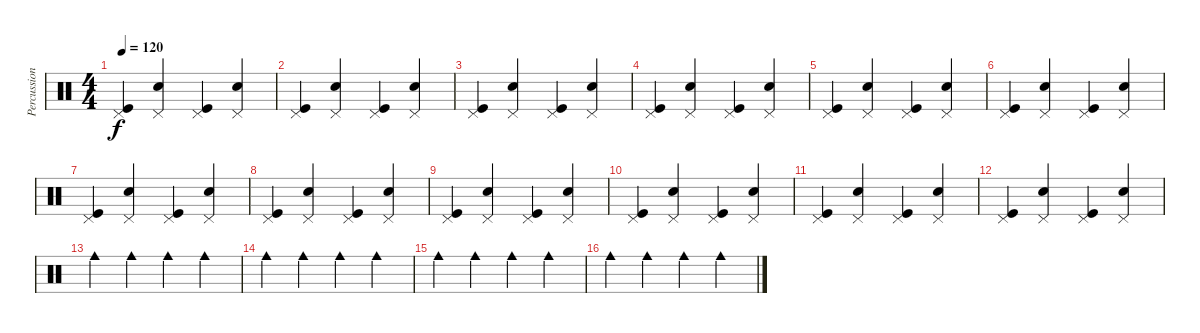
\track ("Percussion" "Percussion") {instrument percussion}
\staff {score}
\articulation defaults
\ts (4 4)
\tempo 120
\clef neutral
\ks c
("Kick (hit)" "Pedal Hi-Hat (hit)").4{dy f} ("Snare (hit) 2" "Pedal Hi-Hat (hit)").4 ("Kick (hit)" "Pedal Hi-Hat (hit)").4 ("Snare (hit) 2" "Pedal Hi-Hat (hit)").4 |
("Kick (hit)" "Pedal Hi-Hat (hit)").4 ("Snare (hit) 2" "Pedal Hi-Hat (hit)").4 ("Kick (hit)" "Pedal Hi-Hat (hit)").4 ("Snare (hit) 2" "Pedal Hi-Hat (hit)").4 |
("Kick (hit)" "Pedal Hi-Hat (hit)").4 ("Snare (hit) 2" "Pedal Hi-Hat (hit)").4 ("Kick (hit)" "Pedal Hi-Hat (hit)").4 ("Snare (hit) 2" "Pedal Hi-Hat (hit)").4 |
("Kick (hit)" "Pedal Hi-Hat (hit)").4 ("Snare (hit) 2" "Pedal Hi-Hat (hit)").4 ("Kick (hit)" "Pedal Hi-Hat (hit)").4 ("Snare (hit) 2" "Pedal Hi-Hat (hit)").4 |
("Kick (hit)" "Pedal Hi-Hat (hit)").4 ("Snare (hit) 2" "Pedal Hi-Hat (hit)").4 ("Kick (hit)" "Pedal Hi-Hat (hit)").4 ("Snare (hit) 2" "Pedal Hi-Hat (hit)").4 |
("Kick (hit)" "Pedal Hi-Hat (hit)").4 ("Snare (hit) 2" "Pedal Hi-Hat (hit)").4 ("Kick (hit)" "Pedal Hi-Hat (hit)").4 ("Snare (hit) 2" "Pedal Hi-Hat (hit)").4 |
("Kick (hit)" "Pedal Hi-Hat (hit)").4 ("Snare (hit) 2" "Pedal Hi-Hat (hit)").4 ("Kick (hit)" "Pedal Hi-Hat (hit)").4 ("Snare (hit) 2" "Pedal Hi-Hat (hit)").4 |
("Kick (hit)" "Pedal Hi-Hat (hit)").4 ("Snare (hit) 2" "Pedal Hi-Hat (hit)").4 ("Kick (hit)" "Pedal Hi-Hat (hit)").4 ("Snare (hit) 2" "Pedal Hi-Hat (hit)").4 |
("Kick (hit)" "Pedal Hi-Hat (hit)").4 ("Snare (hit) 2" "Pedal Hi-Hat (hit)").4 ("Kick (hit)" "Pedal Hi-Hat (hit)").4 ("Snare (hit) 2" "Pedal Hi-Hat (hit)").4 |
("Kick (hit)" "Pedal Hi-Hat (hit)").4 ("Snare (hit) 2" "Pedal Hi-Hat (hit)").4 ("Kick (hit)" "Pedal Hi-Hat (hit)").4 ("Snare (hit) 2" "Pedal Hi-Hat (hit)").4 |
("Kick (hit)" "Pedal Hi-Hat (hit)").4 ("Snare (hit) 2" "Pedal Hi-Hat (hit)").4 ("Kick (hit)" "Pedal Hi-Hat (hit)").4 ("Snare (hit) 2" "Pedal Hi-Hat (hit)").4 |
("Kick (hit)" "Pedal Hi-Hat (hit)").4 ("Snare (hit) 2" "Pedal Hi-Hat (hit)").4 ("Kick (hit)" "Pedal Hi-Hat (hit)").4 ("Snare (hit) 2" "Pedal Hi-Hat (hit)").4 |
"Cowbell medium (hit)".4 "Cowbell medium (hit)".4 "Cowbell medium (hit)".4 "Cowbell medium (hit)".4 |
"Cowbell medium (hit)".4 "Cowbell medium (hit)".4 "Cowbell medium (hit)".4 "Cowbell medium (hit)".4 |
"Cowbell medium (hit)".4 "Cowbell medium (hit)".4 "Cowbell medium (hit)".4 "Cowbell medium (hit)".4 |
"Cowbell medium (hit)".4 "Cowbell medium (hit)".4 "Cowbell medium (hit)".4 "Cowbell medium (hit)".4
